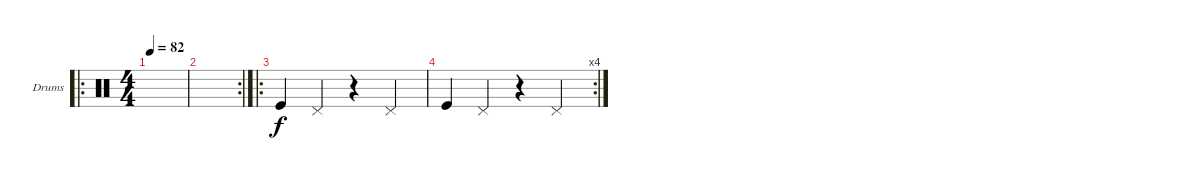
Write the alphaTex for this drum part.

\defaultSystemsLayout 4
\bracketExtendMode groupsimilarinstruments
\firstSystemTrackNameOrientation horizontal
\otherSystemsTrackNameOrientation horizontal
\track ("Drumkit" "Drums") {instrument percussion}
\staff {score}
\articulation defaults
\ro
\ts (4 4)
\tempo 82
\clef neutral
\scale
0.465021
\ks c
|
\rc 2
\scale
0.255144 |
\ro
\scale
0.279835 "Kick (hit)".4 "Pedal Hi-Hat (hit)".4 r.4 "Pedal Hi-Hat (hit)".4 |
\rc 4 "Kick (hit)".4 "Pedal Hi-Hat (hit)".4
r.4 "Pedal Hi-Hat (hit)".4
